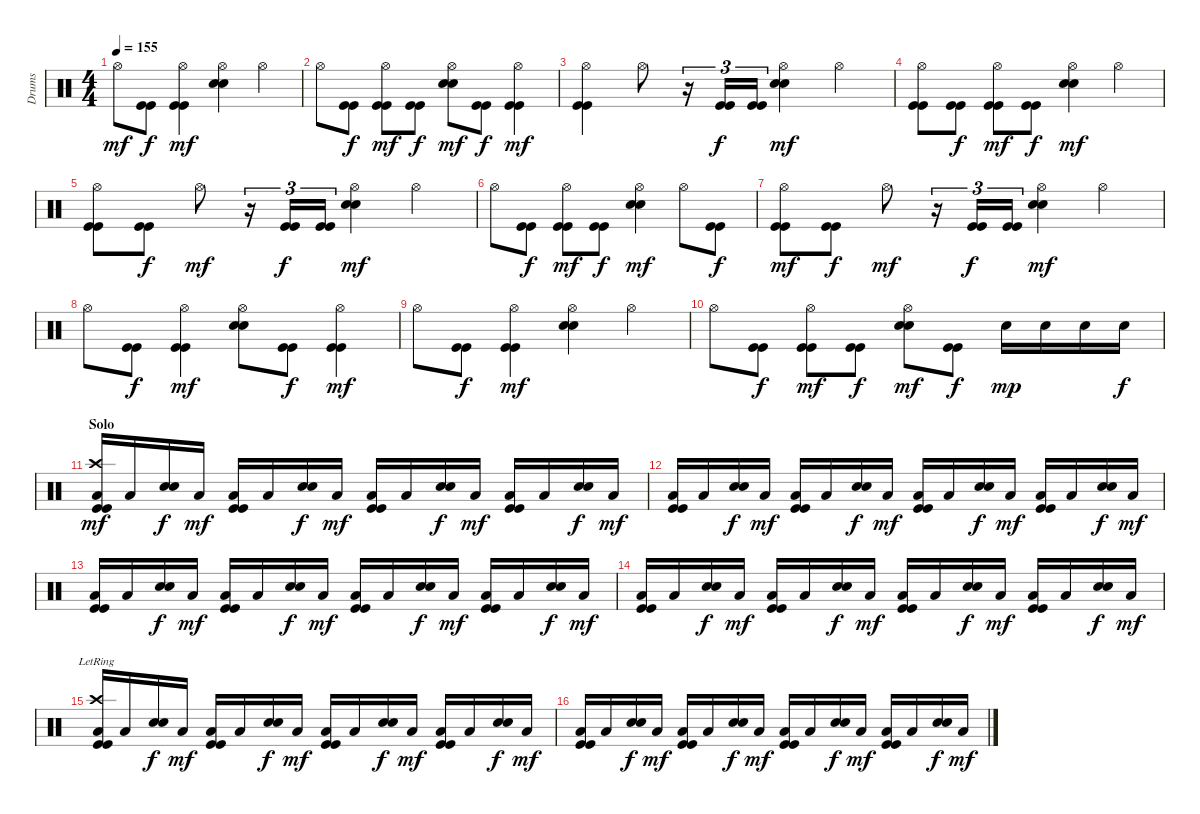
\track ("Drums" "Drums") {instrument percussion}
\staff {score}
\articulation defaults
\ts (4 4)
\tempo 155
\clef neutral
\ks c "Hi-Hat (open)".8{dy mf}
("Kick (hit)" "Kick (hit)").8{dy f} ("Hi-Hat (open)" "Kick (hit)" "Kick (hit)").4{dy mf} ("Hi-Hat (open)" "Snare (hit) 2" "Snare (hit) 2").4 "Hi-Hat (open)".4 |
"Hi-Hat (open)".8 ("Kick (hit)" "Kick (hit)").8{dy f} ("Hi-Hat (open)" "Kick (hit)" "Kick (hit)").8{dy mf} ("Kick (hit)" "Kick (hit)").8{dy f} ("Hi-Hat (open)" "Snare (hit) 2" "Snare (hit) 2").8{dy mf} ("Kick (hit)" "Kick (hit)").8{dy f} ("Hi-Hat (open)" "Kick (hit)" "Kick (hit)").4{dy mf} |
("Hi-Hat (open)" "Kick (hit)" "Kick (hit)").4 "Hi-Hat (open)".8 r.16{tu (3 2)} ("Kick (hit)" "Kick (hit)").16{tu (3 2) dy f} ("Kick (hit)" "Kick (hit)").16{tu (3 2)} ("Hi-Hat (open)" "Snare (hit) 2" "Snare (hit) 2").4{dy mf} "Hi-Hat (open)".4 |
("Hi-Hat (open)" "Kick (hit)" "Kick (hit)").8 ("Kick (hit)" "Kick (hit)").8{dy f} ("Hi-Hat (open)" "Kick (hit)" "Kick (hit)").8{dy mf} ("Kick (hit)" "Kick (hit)").8{dy f} ("Hi-Hat (open)" "Snare (hit) 2" "Snare (hit) 2").4{dy mf} "Hi-Hat (open)".4 |
("Hi-Hat (open)" "Kick (hit)" "Kick (hit)").8 ("Kick (hit)" "Kick (hit)").8{dy f} "Hi-Hat (open)".8{dy mf} r.16{tu (3 2)} ("Kick (hit)" "Kick (hit)").16{tu (3 2) dy f} ("Kick (hit)" "Kick (hit)").16{tu (3 2)} ("Hi-Hat (open)" "Snare (hit) 2" "Snare (hit) 2").4{dy mf} "Hi-Hat (open)".4 |
"Hi-Hat (open)".8 ("Kick (hit)" "Kick (hit)").8{dy f} ("Hi-Hat (open)" "Kick (hit)" "Kick (hit)").8{dy mf} ("Kick (hit)" "Kick (hit)").8{dy f} ("Hi-Hat (open)" "Snare (hit) 2" "Snare (hit) 2").4{dy mf} "Hi-Hat (open)".8 ("Kick (hit)" "Kick (hit)").8{dy f} |
("Hi-Hat (open)" "Kick (hit)" "Kick (hit)").8{dy mf} ("Kick (hit)" "Kick (hit)").8{dy f} "Hi-Hat (open)".8{dy mf} r.16{tu (3 2)} ("Kick (hit)" "Kick (hit)").16{tu (3 2) dy f} ("Kick (hit)" "Kick (hit)").16{tu (3 2)} ("Hi-Hat (open)" "Snare (hit) 2" "Snare (hit) 2").4{dy mf} "Hi-Hat (open)".4 |
"Hi-Hat (open)".8 ("Kick (hit)" "Kick (hit)").8{dy f} ("Hi-Hat (open)" "Kick (hit)" "Kick (hit)").4{dy mf} ("Hi-Hat (open)" "Snare (hit) 2" "Snare (hit) 2").8 ("Kick (hit)" "Kick (hit)").8{dy f} ("Hi-Hat (open)" "Kick (hit)" "Kick (hit)").4{dy mf} |
"Hi-Hat (open)".8 ("Kick (hit)" "Kick (hit)").8{dy f} ("Hi-Hat (open)" "Kick (hit)" "Kick (hit)").4{dy mf} ("Hi-Hat (open)" "Snare (hit) 2" "Snare (hit) 2").4 "Hi-Hat (open)".4 |
"Hi-Hat (open)".8 ("Kick (hit)" "Kick (hit)").8{dy f} ("Hi-Hat (open)" "Kick (hit)" "Kick (hit)").8{dy mf} ("Kick (hit)" "Kick (hit)").8{dy f} ("Hi-Hat (open)" "Snare (hit) 2" "Snare (hit) 2").8{dy mf} ("Kick (hit)" "Kick (hit)").8{dy f} "Snare (hit) 2".16{dy mp} "Snare (hit) 2".16 "Snare (hit) 2".16 "Snare (hit) 2".16{dy f} |
\section ("" "Solo")
("Crash high (hit)" "Low Tom (hit)" "Kick (hit)" "Kick (hit)").16{dy mf} "Low Tom (hit)".16 ("Snare (hit) 2" "Snare (hit) 2").16{dy f} "Low Tom (hit)".16{dy mf} ("Low Tom (hit)" "Kick (hit)" "Kick (hit)").16 "Low Tom (hit)".16 ("Snare (hit) 2" "Snare (hit) 2").16{dy f} "Low Tom (hit)".16{dy mf} ("Low Tom (hit)" "Kick (hit)" "Kick (hit)").16 "Low Tom (hit)".16 ("Snare (hit) 2" "Snare (hit) 2").16{dy f} "Low Tom (hit)".16{dy mf} ("Low Tom (hit)" "Kick (hit)" "Kick (hit)").16 "Low Tom (hit)".16 ("Snare (hit) 2" "Snare (hit) 2").16{dy f} "Low Tom (hit)".16{dy mf} |
("Low Tom (hit)" "Kick (hit)" "Kick (hit)").16 "Low Tom (hit)".16 ("Snare (hit) 2" "Snare (hit) 2").16{dy f} "Low Tom (hit)".16{dy mf} ("Low Tom (hit)" "Kick (hit)" "Kick (hit)").16 "Low Tom (hit)".16 ("Snare (hit) 2" "Snare (hit) 2").16{dy f} "Low Tom (hit)".16{dy mf} ("Low Tom (hit)" "Kick (hit)" "Kick (hit)").16 "Low Tom (hit)".16 ("Snare (hit) 2" "Snare (hit) 2").16{dy f} "Low Tom (hit)".16{dy mf} ("Low Tom (hit)" "Kick (hit)" "Kick (hit)").16 "Low Tom (hit)".16 ("Snare (hit) 2" "Snare (hit) 2").16{dy f} "Low Tom (hit)".16{dy mf} |
("Low Tom (hit)" "Kick (hit)" "Kick (hit)").16 "Low Tom (hit)".16 ("Snare (hit) 2" "Snare (hit) 2").16{dy f} "Low Tom (hit)".16{dy mf} ("Low Tom (hit)" "Kick (hit)" "Kick (hit)").16 "Low Tom (hit)".16 ("Snare (hit) 2" "Snare (hit) 2").16{dy f} "Low Tom (hit)".16{dy mf} ("Low Tom (hit)" "Kick (hit)" "Kick (hit)").16 "Low Tom (hit)".16 ("Snare (hit) 2" "Snare (hit) 2").16{dy f} "Low Tom (hit)".16{dy mf} ("Low Tom (hit)" "Kick (hit)" "Kick (hit)").16 "Low Tom (hit)".16 ("Snare (hit) 2" "Snare (hit) 2").16{dy f} "Low Tom (hit)".16{dy mf} |
("Low Tom (hit)" "Kick (hit)" "Kick (hit)").16 "Low Tom (hit)".16 ("Snare (hit) 2" "Snare (hit) 2").16{dy f} "Low Tom (hit)".16{dy mf} ("Low Tom (hit)" "Kick (hit)" "Kick (hit)").16 "Low Tom (hit)".16 ("Snare (hit) 2" "Snare (hit) 2").16{dy f} "Low Tom (hit)".16{dy mf} ("Low Tom (hit)" "Kick (hit)" "Kick (hit)").16 "Low Tom (hit)".16 ("Snare (hit) 2" "Snare (hit) 2").16{dy f} "Low Tom (hit)".16{dy mf} ("Low Tom (hit)" "Kick (hit)" "Kick (hit)").16 "Low Tom (hit)".16 ("Snare (hit) 2" "Snare (hit) 2").16{dy f} "Low Tom (hit)".16{dy mf} |
("Crash high (hit)"{lr} "Low Tom (hit)" "Kick (hit)" "Kick (hit)").16 "Low Tom (hit)".16 ("Snare (hit) 2" "Snare (hit) 2").16{dy f} "Low Tom (hit)".16{dy mf} ("Low Tom (hit)" "Kick (hit)" "Kick (hit)").16 "Low Tom (hit)".16 ("Snare (hit) 2" "Snare (hit) 2").16{dy f} "Low Tom (hit)".16{dy mf} ("Low Tom (hit)" "Kick (hit)" "Kick (hit)").16 "Low Tom (hit)".16 ("Snare (hit) 2" "Snare (hit) 2").16{dy f} "Low Tom (hit)".16{dy mf} ("Low Tom (hit)" "Kick (hit)" "Kick (hit)").16 "Low Tom (hit)".16 ("Snare (hit) 2" "Snare (hit) 2").16{dy f} "Low Tom (hit)".16{dy mf} |
("Low Tom (hit)" "Kick (hit)" "Kick (hit)").16 "Low Tom (hit)".16 ("Snare (hit) 2" "Snare (hit) 2").16{dy f} "Low Tom (hit)".16{dy mf} ("Low Tom (hit)" "Kick (hit)" "Kick (hit)").16 "Low Tom (hit)".16 ("Snare (hit) 2" "Snare (hit) 2").16{dy f} "Low Tom (hit)".16{dy mf} ("Low Tom (hit)" "Kick (hit)" "Kick (hit)").16 "Low Tom (hit)".16 ("Snare (hit) 2" "Snare (hit) 2").16{dy f} "Low Tom (hit)".16{dy mf} ("Low Tom (hit)" "Kick (hit)" "Kick (hit)").16 "Low Tom (hit)".16 ("Snare (hit) 2" "Snare (hit) 2").16{dy f} "Low Tom (hit)".16{dy mf}
